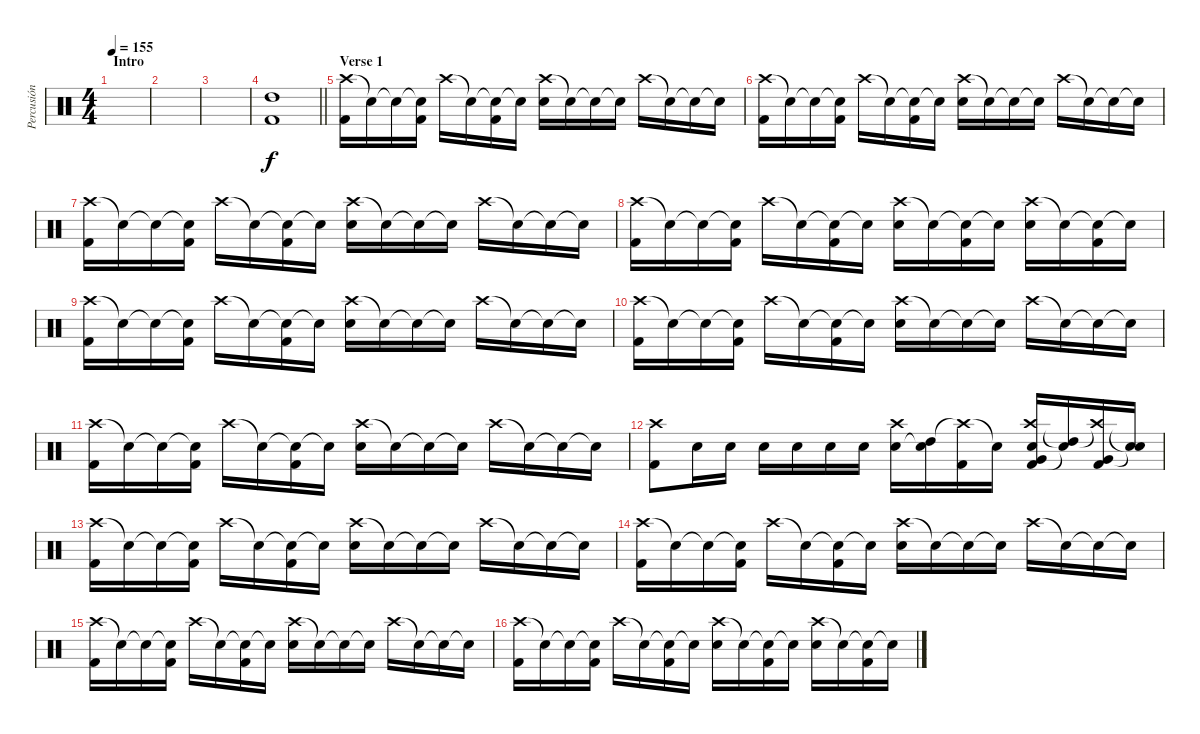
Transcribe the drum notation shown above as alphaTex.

\track ("Percusión" "Percusión") {instrument percussion}
\staff {score}
\articulation defaults
\ts (4 4)
\section ("" "Intro")
\tempo 155
\clef neutral
\ks c
|
|
|
\barLineRight lightlight
("High Tom (hit)" "Kick (hit) 2").1 |
\section ("" "Verse 1")
("Crash high (hit)" "Kick (hit) 2").16 "Snare (hit)"{t}.16 "Snare (hit)"{t}.16 ("Snare (hit)"{t} "Kick (hit) 2").16 "Crash high (hit)".16 "Snare (hit)"{t}.16 ("Snare (hit)"{t} "Kick (hit) 2").16 "Snare (hit)"{t}.16 ("Crash high (hit)" "Electric Snare (hit)").16 "Snare (hit)"{t}.16 "Snare (hit)"{t}.16 "Snare (hit)"{t}.16 "Crash high (hit)".16 "Snare (hit)"{t}.16 "Snare (hit)"{t}.16 "Snare (hit)"{t}.16 |
("Crash high (hit)" "Kick (hit) 2").16 "Snare (hit)"{t}.16 "Snare (hit)"{t}.16 ("Snare (hit)"{t} "Kick (hit) 2").16 "Crash high (hit)".16 "Snare (hit)"{t}.16 ("Snare (hit)"{t} "Kick (hit) 2").16 "Snare (hit)"{t}.16 ("Crash high (hit)" "Electric Snare (hit)").16 "Snare (hit)"{t}.16 "Snare (hit)"{t}.16 "Snare (hit)"{t}.16 "Crash high (hit)".16 "Snare (hit)"{t}.16 "Snare (hit)"{t}.16 "Snare (hit)"{t}.16 |
("Crash high (hit)" "Kick (hit) 2").16 "Snare (hit)"{t}.16 "Snare (hit)"{t}.16 ("Snare (hit)"{t} "Kick (hit) 2").16 "Crash high (hit)".16 "Snare (hit)"{t}.16 ("Snare (hit)"{t} "Kick (hit) 2").16 "Snare (hit)"{t}.16 ("Crash high (hit)" "Electric Snare (hit)").16 "Snare (hit)"{t}.16 "Snare (hit)"{t}.16 "Snare (hit)"{t}.16 "Crash high (hit)".16 "Snare (hit)"{t}.16 "Snare (hit)"{t}.16 "Snare (hit)"{t}.16 |
("Crash high (hit)" "Kick (hit) 2").16 "Snare (hit)"{t}.16 "Snare (hit)"{t}.16 ("Snare (hit)"{t} "Kick (hit) 2").16 "Crash high (hit)".16 "Snare (hit)"{t}.16 ("Snare (hit)"{t} "Kick (hit) 2").16 "Snare (hit)"{t}.16 ("Crash high (hit)" "Electric Snare (hit)").16 "Snare (hit)"{t}.16 ("Snare (hit)"{t} "Kick (hit) 2").16 "Snare (hit)"{t}.16 ("Crash high (hit)" "Electric Snare (hit)").16 "Snare (hit)"{t}.16 ("Snare (hit)"{t} "Kick (hit) 2").16 "Snare (hit)"{t}.16 |
("Crash high (hit)" "Kick (hit) 2").16 "Snare (hit)"{t}.16 "Snare (hit)"{t}.16 ("Snare (hit)"{t} "Kick (hit) 2").16 "Crash high (hit)".16 "Snare (hit)"{t}.16 ("Snare (hit)"{t} "Kick (hit) 2").16 "Snare (hit)"{t}.16 ("Crash high (hit)" "Electric Snare (hit)").16 "Snare (hit)"{t}.16 "Snare (hit)"{t}.16 "Snare (hit)"{t}.16 "Crash high (hit)".16 "Snare (hit)"{t}.16 "Snare (hit)"{t}.16 "Snare (hit)"{t}.16 |
("Crash high (hit)" "Kick (hit) 2").16 "Snare (hit)"{t}.16 "Snare (hit)"{t}.16 ("Snare (hit)"{t} "Kick (hit) 2").16 "Crash high (hit)".16 "Snare (hit)"{t}.16 ("Snare (hit)"{t} "Kick (hit) 2").16 "Snare (hit)"{t}.16 ("Crash high (hit)" "Electric Snare (hit)").16 "Snare (hit)"{t}.16 "Snare (hit)"{t}.16 "Snare (hit)"{t}.16 "Crash high (hit)".16 "Snare (hit)"{t}.16 "Snare (hit)"{t}.16 "Snare (hit)"{t}.16 |
("Crash high (hit)" "Kick (hit) 2").16 "Snare (hit)"{t}.16 "Snare (hit)"{t}.16 ("Snare (hit)"{t} "Kick (hit) 2").16 "Crash high (hit)".16 "Snare (hit)"{t}.16 ("Snare (hit)"{t} "Kick (hit) 2").16 "Snare (hit)"{t}.16 ("Crash high (hit)" "Electric Snare (hit)").16 "Snare (hit)"{t}.16 "Snare (hit)"{t}.16 "Snare (hit)"{t}.16 "Crash high (hit)".16 "Snare (hit)"{t}.16 "Snare (hit)"{t}.16 "Snare (hit)"{t}.16 |
("Crash high (hit)" "Kick (hit) 2").8 "Electric Snare (hit)".16 "Electric Snare (hit)".16 "Electric Snare (hit)".16 "Electric Snare (hit)".16 "Electric Snare (hit)".16 "Electric Snare (hit)".16 ("Crash high (hit)" "Electric Snare (hit)").16 ("High Tom (hit)" "Electric Snare (hit)"{t}).16 ("Crash high (hit)"{t} "Kick (hit) 2").16 "Electric Snare (hit)"{t}.16 ("Crash high (hit)" "Kick (hit) 2" "Electric Snare (hit)" "Very Low Tom (hit)").16 ("High Tom (hit)"{t} "Snare (hit)"{t}).16 ("Crash high (hit)"{t} "Very Low Tom (hit)" "Kick (hit) 2").16 ("Snare (hit)"{t} "Snare (hit)"{t}).16 |
("Crash high (hit)" "Kick (hit) 2").16 "Snare (hit)"{t}.16 "Snare (hit)"{t}.16 ("Snare (hit)"{t} "Kick (hit) 2").16 "Crash high (hit)".16 "Snare (hit)"{t}.16 ("Snare (hit)"{t} "Kick (hit) 2").16 "Snare (hit)"{t}.16 ("Crash high (hit)" "Electric Snare (hit)").16 "Snare (hit)"{t}.16 "Snare (hit)"{t}.16 "Snare (hit)"{t}.16 "Crash high (hit)".16 "Snare (hit)"{t}.16 "Snare (hit)"{t}.16 "Snare (hit)"{t}.16 |
("Crash high (hit)" "Kick (hit) 2").16 "Snare (hit)"{t}.16 "Snare (hit)"{t}.16 ("Snare (hit)"{t} "Kick (hit) 2").16 "Crash high (hit)".16 "Snare (hit)"{t}.16 ("Snare (hit)"{t} "Kick (hit) 2").16 "Snare (hit)"{t}.16 ("Crash high (hit)" "Electric Snare (hit)").16 "Snare (hit)"{t}.16 "Snare (hit)"{t}.16 "Snare (hit)"{t}.16 "Crash high (hit)".16 "Snare (hit)"{t}.16 "Snare (hit)"{t}.16 "Snare (hit)"{t}.16 |
("Crash high (hit)" "Kick (hit) 2").16 "Snare (hit)"{t}.16 "Snare (hit)"{t}.16 ("Snare (hit)"{t} "Kick (hit) 2").16 "Crash high (hit)".16 "Snare (hit)"{t}.16 ("Snare (hit)"{t} "Kick (hit) 2").16 "Snare (hit)"{t}.16 ("Crash high (hit)" "Electric Snare (hit)").16 "Snare (hit)"{t}.16 "Snare (hit)"{t}.16 "Snare (hit)"{t}.16 "Crash high (hit)".16 "Snare (hit)"{t}.16 "Snare (hit)"{t}.16 "Snare (hit)"{t}.16 |
("Crash high (hit)" "Kick (hit) 2").16 "Snare (hit)"{t}.16 "Snare (hit)"{t}.16 ("Snare (hit)"{t} "Kick (hit) 2").16 "Crash high (hit)".16 "Snare (hit)"{t}.16 ("Snare (hit)"{t} "Kick (hit) 2").16 "Snare (hit)"{t}.16 ("Crash high (hit)" "Electric Snare (hit)").16 "Snare (hit)"{t}.16 ("Snare (hit)"{t} "Kick (hit) 2").16 "Snare (hit)"{t}.16 ("Crash high (hit)" "Electric Snare (hit)").16 "Snare (hit)"{t}.16 ("Snare (hit)"{t} "Kick (hit) 2").16 "Snare (hit)"{t}.16
